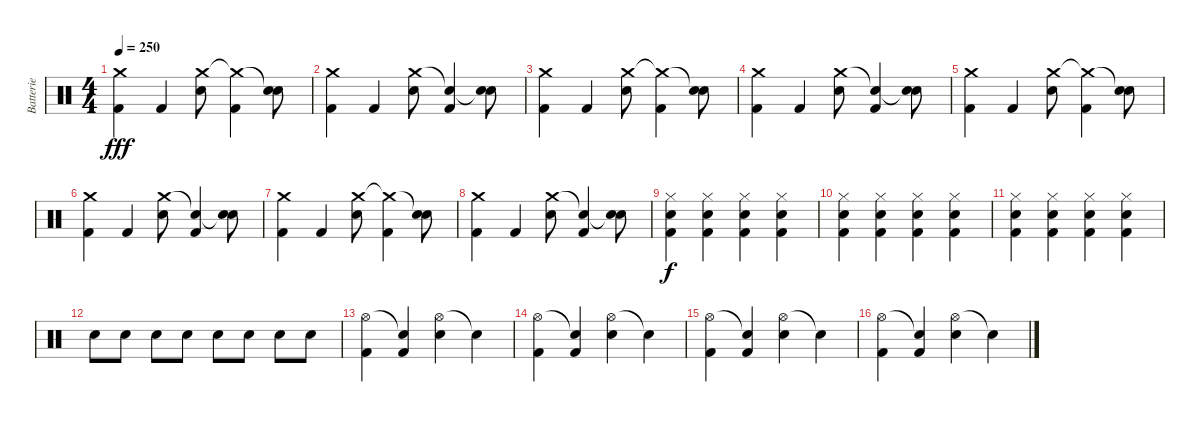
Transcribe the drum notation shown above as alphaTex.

\track ("Batterie" "Batterie") {instrument percussion}
\staff {score}
\articulation defaults
\ts (4 4)
\tempo 250
\clef neutral
\ks c
("Crash medium (hit)" "Kick (hit) 2").4{dy fff} "Kick (hit) 2".4 ("Crash medium (hit)" "Electric Snare (hit)").8 ("Crash medium (hit)"{t} "Kick (hit) 2").4 ("Snare (hit)"{t} "Electric Snare (hit)").8 |
("Crash medium (hit)" "Kick (hit) 2").4 "Kick (hit) 2".4 ("Crash medium (hit)" "Electric Snare (hit)").8 ("Snare (hit)"{t} "Kick (hit) 2").4 ("Snare (hit)"{t} "Electric Snare (hit)").8 |
("Crash medium (hit)" "Kick (hit) 2").4 "Kick (hit) 2".4 ("Crash medium (hit)" "Electric Snare (hit)").8 ("Crash medium (hit)"{t} "Kick (hit) 2").4 ("Snare (hit)"{t} "Electric Snare (hit)").8 |
("Crash medium (hit)" "Kick (hit) 2").4 "Kick (hit) 2".4 ("Crash medium (hit)" "Electric Snare (hit)").8 ("Snare (hit)"{t} "Kick (hit) 2").4 ("Snare (hit)"{t} "Electric Snare (hit)").8 |
("Crash medium (hit)" "Kick (hit) 2").4 "Kick (hit) 2".4 ("Crash medium (hit)" "Electric Snare (hit)").8 ("Crash medium (hit)"{t} "Kick (hit) 2").4 ("Snare (hit)"{t} "Electric Snare (hit)").8 |
("Crash medium (hit)" "Kick (hit) 2").4 "Kick (hit) 2".4 ("Crash medium (hit)" "Electric Snare (hit)").8 ("Snare (hit)"{t} "Kick (hit) 2").4 ("Snare (hit)"{t} "Electric Snare (hit)").8 |
("Crash medium (hit)" "Kick (hit) 2").4 "Kick (hit) 2".4 ("Crash medium (hit)" "Electric Snare (hit)").8 ("Crash medium (hit)"{t} "Kick (hit) 2").4 ("Snare (hit)"{t} "Electric Snare (hit)").8 |
("Crash medium (hit)" "Kick (hit) 2").4 "Kick (hit) 2".4 ("Crash medium (hit)" "Electric Snare (hit)").8 ("Snare (hit)"{t} "Kick (hit) 2").4 ("Snare (hit)"{t} "Electric Snare (hit)").8 |
("Hi-Hat (closed)" "Snare (hit) 2" "Kick (hit) 2").4{dy f} ("Hi-Hat (closed)" "Snare (hit) 2" "Kick (hit) 2").4 ("Hi-Hat (closed)" "Snare (hit) 2" "Kick (hit) 2").4 ("Hi-Hat (closed)" "Snare (hit) 2" "Kick (hit) 2").4 |
("Hi-Hat (closed)" "Snare (hit) 2" "Kick (hit) 2").4 ("Hi-Hat (closed)" "Snare (hit) 2" "Kick (hit) 2").4 ("Hi-Hat (closed)" "Snare (hit) 2" "Kick (hit) 2").4 ("Hi-Hat (closed)" "Snare (hit) 2" "Kick (hit) 2").4 |
("Hi-Hat (closed)" "Snare (hit) 2" "Kick (hit) 2").4 ("Hi-Hat (closed)" "Snare (hit) 2" "Kick (hit) 2").4 ("Hi-Hat (closed)" "Snare (hit) 2" "Kick (hit) 2").4 ("Hi-Hat (closed)" "Snare (hit) 2" "Kick (hit) 2").4 |
"Electric Snare (hit)".8 "Electric Snare (hit)".8 "Electric Snare (hit)".8 "Electric Snare (hit)".8 "Electric Snare (hit)".8 "Electric Snare (hit)".8 "Electric Snare (hit)".8 "Electric Snare (hit)".8 |
("Hi-Hat (open)" "Kick (hit) 2").4 ("Snare (hit)"{t} "Kick (hit) 2").4 ("Hi-Hat (open)" "Electric Snare (hit)").4 "Snare (hit)"{t}.4 |
("Hi-Hat (open)" "Kick (hit) 2").4 ("Snare (hit)"{t} "Kick (hit) 2").4 ("Hi-Hat (open)" "Electric Snare (hit)").4 "Snare (hit)"{t}.4 |
("Hi-Hat (open)" "Kick (hit) 2").4 ("Snare (hit)"{t} "Kick (hit) 2").4 ("Hi-Hat (open)" "Electric Snare (hit)").4 "Snare (hit)"{t}.4 |
("Hi-Hat (open)" "Kick (hit) 2").4 ("Snare (hit)"{t} "Kick (hit) 2").4 ("Hi-Hat (open)" "Electric Snare (hit)").4 "Snare (hit)"{t}.4
